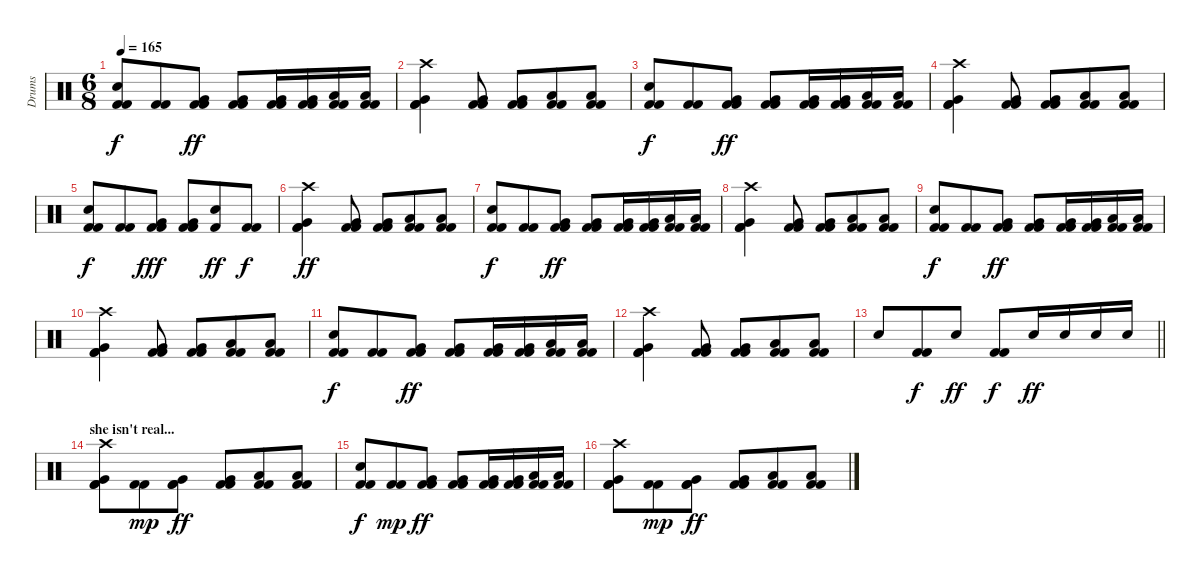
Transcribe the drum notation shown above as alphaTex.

\track ("Drums" "Drums") {instrument percussion}
\staff {score}
\articulation defaults
\ts (6 8)
\tempo 165
\clef neutral
\ks c
("Electric Snare (hit)" "Kick (hit) 2" "Kick (hit) 2").8{dy f} ("Kick (hit) 2" "Kick (hit) 2").8 ("Very Low Tom (hit)" "Kick (hit) 2" "Kick (hit) 2").8{dy ff} ("Very Low Tom (hit)" "Kick (hit) 2" "Kick (hit) 2").8 ("Very Low Tom (hit)" "Kick (hit) 2" "Kick (hit) 2").16 ("Very Low Tom (hit)" "Kick (hit) 2" "Kick (hit) 2").16 ("Low Floor Tom (hit)" "Kick (hit) 2" "Kick (hit) 2").16 ("Low Floor Tom (hit)" "Kick (hit) 2" "Kick (hit) 2").16 |
("Crash high (hit)" "Very Low Tom (hit)" "Kick (hit) 2" "Kick (hit) 2").4 ("Very Low Tom (hit)" "Kick (hit) 2" "Kick (hit) 2").8 ("Very Low Tom (hit)" "Kick (hit) 2" "Kick (hit) 2").8 ("Low Floor Tom (hit)" "Kick (hit) 2" "Kick (hit) 2").8 ("Low Floor Tom (hit)" "Kick (hit) 2" "Kick (hit) 2").8 |
("Electric Snare (hit)" "Kick (hit) 2" "Kick (hit) 2").8{dy f} ("Kick (hit) 2" "Kick (hit) 2").8 ("Very Low Tom (hit)" "Kick (hit) 2" "Kick (hit) 2").8{dy ff} ("Very Low Tom (hit)" "Kick (hit) 2" "Kick (hit) 2").8 ("Very Low Tom (hit)" "Kick (hit) 2" "Kick (hit) 2").16 ("Very Low Tom (hit)" "Kick (hit) 2" "Kick (hit) 2").16 ("Low Floor Tom (hit)" "Kick (hit) 2" "Kick (hit) 2").16 ("Low Floor Tom (hit)" "Kick (hit) 2" "Kick (hit) 2").16 |
("Crash high (hit)" "Very Low Tom (hit)" "Kick (hit) 2" "Kick (hit) 2").4 ("Very Low Tom (hit)" "Kick (hit) 2" "Kick (hit) 2").8 ("Very Low Tom (hit)" "Kick (hit) 2" "Kick (hit) 2").8 ("Low Floor Tom (hit)" "Kick (hit) 2" "Kick (hit) 2").8 ("Low Floor Tom (hit)" "Kick (hit) 2" "Kick (hit) 2").8 |
("Electric Snare (hit)" "Kick (hit) 2" "Kick (hit) 2").8{dy f} ("Kick (hit) 2" "Kick (hit) 2").8 ("Very Low Tom (hit)" "Kick (hit) 2" "Kick (hit) 2").8{dy fff} ("Very Low Tom (hit)" "Kick (hit) 2" "Kick (hit) 2").8 ("Electric Snare (hit)" "Kick (hit) 2").8{dy ff} ("Kick (hit) 2" "Kick (hit) 2").8{dy f} |
("Crash high (hit)" "Very Low Tom (hit)" "Kick (hit) 2" "Kick (hit) 2").4{dy ff} ("Very Low Tom (hit)" "Kick (hit) 2" "Kick (hit) 2").8 ("Very Low Tom (hit)" "Kick (hit) 2" "Kick (hit) 2").8 ("Low Floor Tom (hit)" "Kick (hit) 2" "Kick (hit) 2").8 ("Low Floor Tom (hit)" "Kick (hit) 2" "Kick (hit) 2").8 |
("Electric Snare (hit)" "Kick (hit) 2" "Kick (hit) 2").8{dy f} ("Kick (hit) 2" "Kick (hit) 2").8 ("Very Low Tom (hit)" "Kick (hit) 2" "Kick (hit) 2").8{dy ff} ("Very Low Tom (hit)" "Kick (hit) 2" "Kick (hit) 2").8 ("Very Low Tom (hit)" "Kick (hit) 2" "Kick (hit) 2").16 ("Very Low Tom (hit)" "Kick (hit) 2" "Kick (hit) 2").16 ("Low Floor Tom (hit)" "Kick (hit) 2" "Kick (hit) 2").16 ("Low Floor Tom (hit)" "Kick (hit) 2" "Kick (hit) 2").16 |
("Crash high (hit)" "Very Low Tom (hit)" "Kick (hit) 2" "Kick (hit) 2").4 ("Very Low Tom (hit)" "Kick (hit) 2" "Kick (hit) 2").8 ("Very Low Tom (hit)" "Kick (hit) 2" "Kick (hit) 2").8 ("Low Floor Tom (hit)" "Kick (hit) 2" "Kick (hit) 2").8 ("Low Floor Tom (hit)" "Kick (hit) 2" "Kick (hit) 2").8 |
("Electric Snare (hit)" "Kick (hit) 2" "Kick (hit) 2").8{dy f} ("Kick (hit) 2" "Kick (hit) 2").8 ("Very Low Tom (hit)" "Kick (hit) 2" "Kick (hit) 2").8{dy ff} ("Very Low Tom (hit)" "Kick (hit) 2" "Kick (hit) 2").8 ("Very Low Tom (hit)" "Kick (hit) 2" "Kick (hit) 2").16 ("Very Low Tom (hit)" "Kick (hit) 2" "Kick (hit) 2").16 ("Low Floor Tom (hit)" "Kick (hit) 2" "Kick (hit) 2").16 ("Low Floor Tom (hit)" "Kick (hit) 2" "Kick (hit) 2").16 |
("Crash high (hit)" "Very Low Tom (hit)" "Kick (hit) 2" "Kick (hit) 2").4 ("Very Low Tom (hit)" "Kick (hit) 2" "Kick (hit) 2").8 ("Very Low Tom (hit)" "Kick (hit) 2" "Kick (hit) 2").8 ("Low Floor Tom (hit)" "Kick (hit) 2" "Kick (hit) 2").8 ("Low Floor Tom (hit)" "Kick (hit) 2" "Kick (hit) 2").8 |
("Electric Snare (hit)" "Kick (hit) 2" "Kick (hit) 2").8{dy f} ("Kick (hit) 2" "Kick (hit) 2").8 ("Very Low Tom (hit)" "Kick (hit) 2" "Kick (hit) 2").8{dy ff} ("Very Low Tom (hit)" "Kick (hit) 2" "Kick (hit) 2").8 ("Very Low Tom (hit)" "Kick (hit) 2" "Kick (hit) 2").16 ("Very Low Tom (hit)" "Kick (hit) 2" "Kick (hit) 2").16 ("Low Floor Tom (hit)" "Kick (hit) 2" "Kick (hit) 2").16 ("Low Floor Tom (hit)" "Kick (hit) 2" "Kick (hit) 2").16 |
("Crash high (hit)" "Very Low Tom (hit)" "Kick (hit) 2" "Kick (hit) 2").4 ("Very Low Tom (hit)" "Kick (hit) 2" "Kick (hit) 2").8 ("Very Low Tom (hit)" "Kick (hit) 2" "Kick (hit) 2").8 ("Low Floor Tom (hit)" "Kick (hit) 2" "Kick (hit) 2").8 ("Low Floor Tom (hit)" "Kick (hit) 2" "Kick (hit) 2").8 |
\barLineRight lightlight "Electric Snare (hit)".8
("Kick (hit) 2" "Kick (hit) 2").8{dy f} "Electric Snare (hit)".8{dy ff} ("Kick (hit) 2" "Kick (hit) 2").8{dy f} "Electric Snare (hit)".16{dy ff} "Electric Snare (hit)".16 "Electric Snare (hit)".16 "Electric Snare (hit)".16 |
\section ("" "she isn't real...")
("Crash high (hit)" "Very Low Tom (hit)" "Kick (hit) 2" "Kick (hit) 2").8 ("Kick (hit) 2" "Kick (hit) 2").8{dy mp} ("Very Low Tom (hit)" "Kick (hit) 2" "Kick (hit) 2").8{dy ff} ("Very Low Tom (hit)" "Kick (hit) 2" "Kick (hit) 2").8 ("Low Floor Tom (hit)" "Kick (hit) 2" "Kick (hit) 2").8 ("Low Floor Tom (hit)" "Kick (hit) 2" "Kick (hit) 2").8 |
("Electric Snare (hit)" "Kick (hit) 2" "Kick (hit) 2").8{dy f} ("Kick (hit) 2" "Kick (hit) 2").8{dy mp} ("Very Low Tom (hit)" "Kick (hit) 2" "Kick (hit) 2").8{dy ff} ("Very Low Tom (hit)" "Kick (hit) 2" "Kick (hit) 2").8 ("Very Low Tom (hit)" "Kick (hit) 2" "Kick (hit) 2").16 ("Very Low Tom (hit)" "Kick (hit) 2" "Kick (hit) 2").16 ("Low Floor Tom (hit)" "Kick (hit) 2" "Kick (hit) 2").16 ("Low Floor Tom (hit)" "Kick (hit) 2" "Kick (hit) 2").16 |
("Crash high (hit)" "Very Low Tom (hit)" "Kick (hit) 2" "Kick (hit) 2").8 ("Kick (hit) 2" "Kick (hit) 2").8{dy mp} ("Very Low Tom (hit)" "Kick (hit) 2" "Kick (hit) 2").8{dy ff} ("Very Low Tom (hit)" "Kick (hit) 2" "Kick (hit) 2").8 ("Low Floor Tom (hit)" "Kick (hit) 2" "Kick (hit) 2").8 ("Low Floor Tom (hit)" "Kick (hit) 2" "Kick (hit) 2").8
